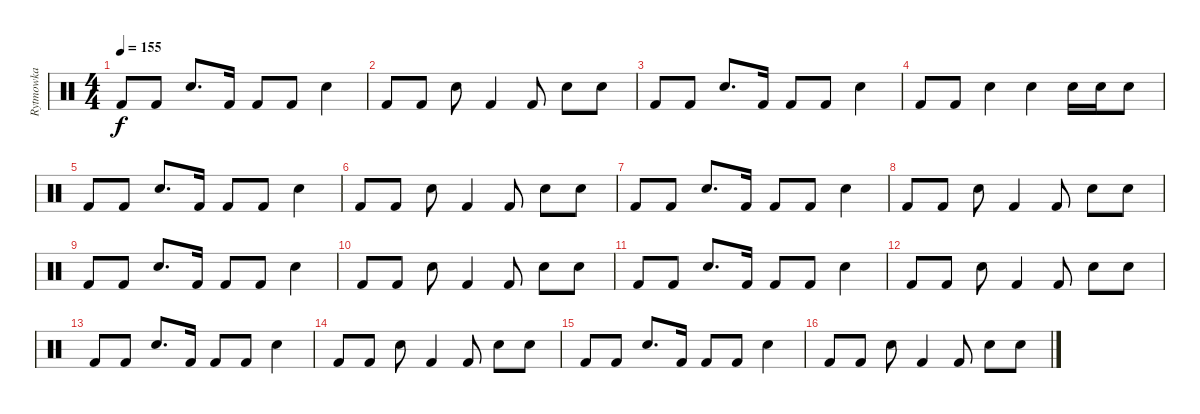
\track ("Rytmowka" "Rytmowka") {instrument percussion}
\staff {score}
\articulation defaults
\ts (4 4)
\tempo 155
\clef neutral
\ks c "Kick (hit) 2".8{dy f} "Kick (hit) 2".8 "Snare (hit) 2".8{d} "Kick (hit) 2".16 "Kick (hit) 2".8 "Kick (hit) 2".8 "Snare (hit) 2".4
|
"Kick (hit) 2".8 "Kick (hit) 2".8 "Snare (hit) 2".8 "Kick (hit) 2".4 "Kick (hit) 2".8 "Snare (hit) 2".8 "Snare (hit) 2".8 |
"Kick (hit) 2".8 "Kick (hit) 2".8 "Snare (hit) 2".8{d} "Kick (hit) 2".16 "Kick (hit) 2".8 "Kick (hit) 2".8 "Snare (hit) 2".4 |
"Kick (hit) 2".8 "Kick (hit) 2".8 "Snare (hit) 2".4 "Snare (hit) 2".4 "Snare (hit) 2".16 "Snare (hit) 2".16 "Snare (hit) 2".8 |
"Kick (hit) 2".8 "Kick (hit) 2".8 "Snare (hit) 2".8{d} "Kick (hit) 2".16 "Kick (hit) 2".8 "Kick (hit) 2".8 "Snare (hit) 2".4 |
"Kick (hit) 2".8 "Kick (hit) 2".8 "Snare (hit) 2".8 "Kick (hit) 2".4 "Kick (hit) 2".8 "Snare (hit) 2".8 "Snare (hit) 2".8 |
"Kick (hit) 2".8 "Kick (hit) 2".8 "Snare (hit) 2".8{d} "Kick (hit) 2".16 "Kick (hit) 2".8 "Kick (hit) 2".8 "Snare (hit) 2".4 |
"Kick (hit) 2".8 "Kick (hit) 2".8 "Snare (hit) 2".8 "Kick (hit) 2".4 "Kick (hit) 2".8 "Snare (hit) 2".8 "Snare (hit) 2".8 |
"Kick (hit) 2".8 "Kick (hit) 2".8 "Snare (hit) 2".8{d} "Kick (hit) 2".16 "Kick (hit) 2".8 "Kick (hit) 2".8 "Snare (hit) 2".4 |
"Kick (hit) 2".8 "Kick (hit) 2".8 "Snare (hit) 2".8 "Kick (hit) 2".4 "Kick (hit) 2".8 "Snare (hit) 2".8 "Snare (hit) 2".8 |
"Kick (hit) 2".8 "Kick (hit) 2".8 "Snare (hit) 2".8{d} "Kick (hit) 2".16 "Kick (hit) 2".8 "Kick (hit) 2".8 "Snare (hit) 2".4 |
"Kick (hit) 2".8 "Kick (hit) 2".8 "Snare (hit) 2".8 "Kick (hit) 2".4 "Kick (hit) 2".8 "Snare (hit) 2".8 "Snare (hit) 2".8 |
"Kick (hit) 2".8 "Kick (hit) 2".8 "Snare (hit) 2".8{d} "Kick (hit) 2".16 "Kick (hit) 2".8 "Kick (hit) 2".8 "Snare (hit) 2".4 |
"Kick (hit) 2".8 "Kick (hit) 2".8 "Snare (hit) 2".8 "Kick (hit) 2".4 "Kick (hit) 2".8 "Snare (hit) 2".8 "Snare (hit) 2".8 |
"Kick (hit) 2".8 "Kick (hit) 2".8 "Snare (hit) 2".8{d} "Kick (hit) 2".16 "Kick (hit) 2".8 "Kick (hit) 2".8 "Snare (hit) 2".4 |
"Kick (hit) 2".8 "Kick (hit) 2".8 "Snare (hit) 2".8 "Kick (hit) 2".4 "Kick (hit) 2".8 "Snare (hit) 2".8 "Snare (hit) 2".8
